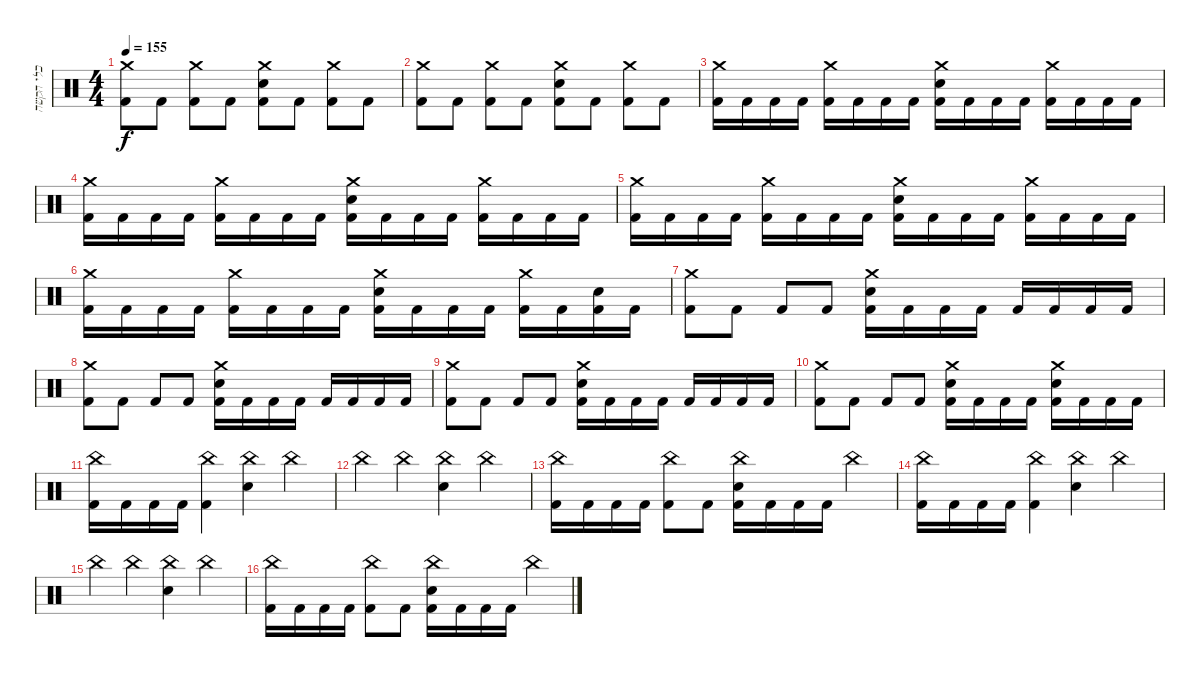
\track ("כלי הקשה" "כלי הקשה") {instrument percussion}
\staff {score}
\articulation defaults
\ts (4 4)
\tempo 155
\clef neutral
\ks c
("Crash medium (hit)" "Kick (hit) 2").8{dy f} "Kick (hit) 2".8 ("Crash medium (hit)" "Kick (hit) 2").8 "Kick (hit) 2".8 ("Crash medium (hit)" "Snare (hit) 2" "Kick (hit) 2").8 "Kick (hit) 2".8 ("Crash medium (hit)" "Kick (hit) 2").8 "Kick (hit) 2".8 |
("Crash medium (hit)" "Kick (hit) 2").8 "Kick (hit) 2".8 ("Crash medium (hit)" "Kick (hit) 2").8 "Kick (hit) 2".8 ("Crash medium (hit)" "Snare (hit) 2" "Kick (hit) 2").8 "Kick (hit) 2".8 ("Crash medium (hit)" "Kick (hit) 2").8 "Kick (hit) 2".8 |
("Crash medium (hit)" "Kick (hit) 2").16 "Kick (hit) 2".16 "Kick (hit) 2".16 "Kick (hit) 2".16 ("Crash medium (hit)" "Kick (hit) 2").16 "Kick (hit) 2".16 "Kick (hit) 2".16 "Kick (hit) 2".16 ("Crash medium (hit)" "Snare (hit) 2" "Kick (hit) 2").16 "Kick (hit) 2".16 "Kick (hit) 2".16 "Kick (hit) 2".16 ("Crash medium (hit)" "Kick (hit) 2").16 "Kick (hit) 2".16 "Kick (hit) 2".16 "Kick (hit) 2".16 |
("Crash medium (hit)" "Kick (hit) 2").16 "Kick (hit) 2".16 "Kick (hit) 2".16 "Kick (hit) 2".16 ("Crash medium (hit)" "Kick (hit) 2").16 "Kick (hit) 2".16 "Kick (hit) 2".16 "Kick (hit) 2".16 ("Crash medium (hit)" "Snare (hit) 2" "Kick (hit) 2").16 "Kick (hit) 2".16 "Kick (hit) 2".16 "Kick (hit) 2".16 ("Crash medium (hit)" "Kick (hit) 2").16 "Kick (hit) 2".16 "Kick (hit) 2".16 "Kick (hit) 2".16 |
("Crash medium (hit)" "Kick (hit) 2").16 "Kick (hit) 2".16 "Kick (hit) 2".16 "Kick (hit) 2".16 ("Crash medium (hit)" "Kick (hit) 2").16 "Kick (hit) 2".16 "Kick (hit) 2".16 "Kick (hit) 2".16 ("Crash medium (hit)" "Snare (hit) 2" "Kick (hit) 2").16 "Kick (hit) 2".16 "Kick (hit) 2".16 "Kick (hit) 2".16 ("Crash medium (hit)" "Kick (hit) 2").16 "Kick (hit) 2".16 "Kick (hit) 2".16 "Kick (hit) 2".16 |
("Crash medium (hit)" "Kick (hit) 2").16 "Kick (hit) 2".16 "Kick (hit) 2".16 "Kick (hit) 2".16 ("Crash medium (hit)" "Kick (hit) 2").16 "Kick (hit) 2".16 "Kick (hit) 2".16 "Kick (hit) 2".16 ("Crash medium (hit)" "Snare (hit) 2" "Kick (hit) 2").16 "Kick (hit) 2".16 "Kick (hit) 2".16 "Kick (hit) 2".16 ("Crash medium (hit)" "Kick (hit) 2").16 "Kick (hit) 2".16 ("Snare (hit) 2" "Kick (hit) 2").16 "Kick (hit) 2".16 |
("Crash medium (hit)" "Kick (hit) 2").8 "Kick (hit) 2".8 "Kick (hit) 2".8 "Kick (hit) 2".8 ("Crash medium (hit)" "Snare (hit) 2" "Kick (hit) 2").16 "Kick (hit) 2".16 "Kick (hit) 2".16 "Kick (hit) 2".16 "Kick (hit) 2".16 "Kick (hit) 2".16 "Kick (hit) 2".16 "Kick (hit) 2".16 |
("Crash medium (hit)" "Kick (hit) 2").8 "Kick (hit) 2".8 "Kick (hit) 2".8 "Kick (hit) 2".8 ("Crash medium (hit)" "Snare (hit) 2" "Kick (hit) 2").16 "Kick (hit) 2".16 "Kick (hit) 2".16 "Kick (hit) 2".16 "Kick (hit) 2".16 "Kick (hit) 2".16 "Kick (hit) 2".16 "Kick (hit) 2".16 |
("Crash medium (hit)" "Kick (hit) 2").8 "Kick (hit) 2".8 "Kick (hit) 2".8 "Kick (hit) 2".8 ("Crash medium (hit)" "Snare (hit) 2" "Kick (hit) 2").16 "Kick (hit) 2".16 "Kick (hit) 2".16 "Kick (hit) 2".16 "Kick (hit) 2".16 "Kick (hit) 2".16 "Kick (hit) 2".16 "Kick (hit) 2".16 |
("Crash medium (hit)" "Kick (hit) 2").8 "Kick (hit) 2".8 "Kick (hit) 2".8 "Kick (hit) 2".8 ("Crash medium (hit)" "Snare (hit) 2" "Kick (hit) 2").16 "Kick (hit) 2".16 "Kick (hit) 2".16 "Kick (hit) 2".16 ("Crash medium (hit)" "Snare (hit) 2" "Kick (hit) 2").16 "Kick (hit) 2".16 "Kick (hit) 2".16 "Kick (hit) 2".16 |
("China (hit)" "Kick (hit) 2").16 "Kick (hit) 2".16 "Kick (hit) 2".16 "Kick (hit) 2".16 ("China (hit)" "Kick (hit) 2").4 ("China (hit)" "Snare (hit) 2").4 "China (hit)".4 |
"China (hit)".4 "China (hit)".4 ("China (hit)" "Snare (hit) 2").4 "China (hit)".4 |
("China (hit)" "Kick (hit) 2").16 "Kick (hit) 2".16 "Kick (hit) 2".16 "Kick (hit) 2".16 ("China (hit)" "Kick (hit) 2").8 "Kick (hit) 2".8 ("China (hit)" "Snare (hit) 2" "Kick (hit) 2").16 "Kick (hit) 2".16 "Kick (hit) 2".16 "Kick (hit) 2".16 "China (hit)".4 |
("China (hit)" "Kick (hit) 2").16 "Kick (hit) 2".16 "Kick (hit) 2".16 "Kick (hit) 2".16 ("China (hit)" "Kick (hit) 2").4 ("China (hit)" "Snare (hit) 2").4 "China (hit)".4 |
"China (hit)".4 "China (hit)".4 ("China (hit)" "Snare (hit) 2").4 "China (hit)".4 |
("China (hit)" "Kick (hit) 2").16 "Kick (hit) 2".16 "Kick (hit) 2".16 "Kick (hit) 2".16 ("China (hit)" "Kick (hit) 2").8 "Kick (hit) 2".8 ("China (hit)" "Snare (hit) 2" "Kick (hit) 2").16 "Kick (hit) 2".16 "Kick (hit) 2".16 "Kick (hit) 2".16 "China (hit)".4
